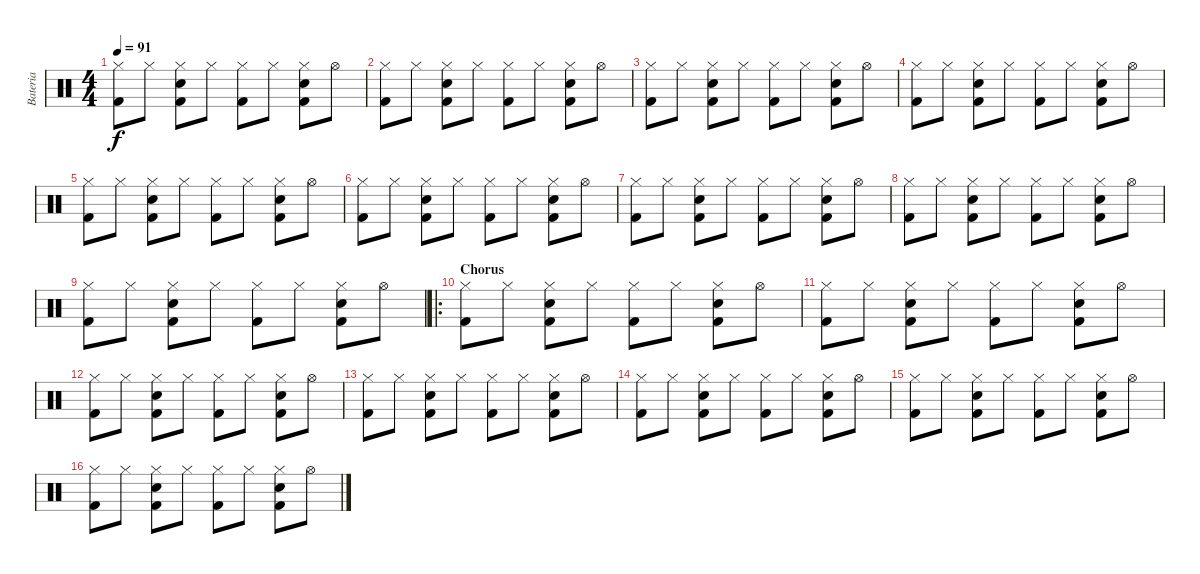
\track ("Bateria" "Bateria") {instrument percussion}
\staff {score}
\articulation defaults
\ts (4 4)
\tempo 91
\clef neutral
\ks c
("Hi-Hat (closed)" "Kick (hit) 2").8{dy f} "Hi-Hat (closed)".8 ("Hi-Hat (closed)" "Electric Snare (hit)" "Kick (hit) 2").8 "Hi-Hat (closed)".8 ("Hi-Hat (closed)" "Kick (hit) 2").8 "Hi-Hat (closed)".8 ("Hi-Hat (closed)" "Electric Snare (hit)" "Kick (hit) 2").8 "Hi-Hat (open)".8 |
("Hi-Hat (closed)" "Kick (hit) 2").8 "Hi-Hat (closed)".8 ("Hi-Hat (closed)" "Electric Snare (hit)" "Kick (hit) 2").8 "Hi-Hat (closed)".8 ("Hi-Hat (closed)" "Kick (hit) 2").8 "Hi-Hat (closed)".8 ("Hi-Hat (closed)" "Electric Snare (hit)" "Kick (hit) 2").8 "Hi-Hat (open)".8 |
("Hi-Hat (closed)" "Kick (hit) 2").8 "Hi-Hat (closed)".8 ("Hi-Hat (closed)" "Electric Snare (hit)" "Kick (hit) 2").8 "Hi-Hat (closed)".8 ("Hi-Hat (closed)" "Kick (hit) 2").8 "Hi-Hat (closed)".8 ("Hi-Hat (closed)" "Electric Snare (hit)" "Kick (hit) 2").8 "Hi-Hat (open)".8 |
("Hi-Hat (closed)" "Kick (hit) 2").8 "Hi-Hat (closed)".8 ("Hi-Hat (closed)" "Electric Snare (hit)" "Kick (hit) 2").8 "Hi-Hat (closed)".8 ("Hi-Hat (closed)" "Kick (hit) 2").8 "Hi-Hat (closed)".8 ("Hi-Hat (closed)" "Electric Snare (hit)" "Kick (hit) 2").8 "Hi-Hat (open)".8 |
("Hi-Hat (closed)" "Kick (hit) 2").8 "Hi-Hat (closed)".8 ("Hi-Hat (closed)" "Electric Snare (hit)" "Kick (hit) 2").8 "Hi-Hat (closed)".8 ("Hi-Hat (closed)" "Kick (hit) 2").8 "Hi-Hat (closed)".8 ("Hi-Hat (closed)" "Electric Snare (hit)" "Kick (hit) 2").8 "Hi-Hat (open)".8 |
("Hi-Hat (closed)" "Kick (hit) 2").8 "Hi-Hat (closed)".8 ("Hi-Hat (closed)" "Electric Snare (hit)" "Kick (hit) 2").8 "Hi-Hat (closed)".8 ("Hi-Hat (closed)" "Kick (hit) 2").8 "Hi-Hat (closed)".8 ("Hi-Hat (closed)" "Electric Snare (hit)" "Kick (hit) 2").8 "Hi-Hat (open)".8 |
("Hi-Hat (closed)" "Kick (hit) 2").8 "Hi-Hat (closed)".8 ("Hi-Hat (closed)" "Electric Snare (hit)" "Kick (hit) 2").8 "Hi-Hat (closed)".8 ("Hi-Hat (closed)" "Kick (hit) 2").8 "Hi-Hat (closed)".8 ("Hi-Hat (closed)" "Electric Snare (hit)" "Kick (hit) 2").8 "Hi-Hat (open)".8 |
("Hi-Hat (closed)" "Kick (hit) 2").8 "Hi-Hat (closed)".8 ("Hi-Hat (closed)" "Electric Snare (hit)" "Kick (hit) 2").8 "Hi-Hat (closed)".8 ("Hi-Hat (closed)" "Kick (hit) 2").8 "Hi-Hat (closed)".8 ("Hi-Hat (closed)" "Electric Snare (hit)" "Kick (hit) 2").8 "Hi-Hat (open)".8 |
("Hi-Hat (closed)" "Kick (hit) 2").8 "Hi-Hat (closed)".8 ("Hi-Hat (closed)" "Electric Snare (hit)" "Kick (hit) 2").8 "Hi-Hat (closed)".8 ("Hi-Hat (closed)" "Kick (hit) 2").8 "Hi-Hat (closed)".8 ("Hi-Hat (closed)" "Electric Snare (hit)" "Kick (hit) 2").8 "Hi-Hat (open)".8 |
\ro
\section ("" "Chorus")
("Hi-Hat (closed)" "Kick (hit) 2").8 "Hi-Hat (closed)".8 ("Hi-Hat (closed)" "Electric Snare (hit)" "Kick (hit) 2").8 "Hi-Hat (closed)".8 ("Hi-Hat (closed)" "Kick (hit) 2").8 "Hi-Hat (closed)".8 ("Hi-Hat (closed)" "Electric Snare (hit)" "Kick (hit) 2").8 "Hi-Hat (open)".8 |
("Hi-Hat (closed)" "Kick (hit) 2").8 "Hi-Hat (closed)".8 ("Hi-Hat (closed)" "Electric Snare (hit)" "Kick (hit) 2").8 "Hi-Hat (closed)".8 ("Hi-Hat (closed)" "Kick (hit) 2").8 "Hi-Hat (closed)".8 ("Hi-Hat (closed)" "Electric Snare (hit)" "Kick (hit) 2").8 "Hi-Hat (open)".8 |
("Hi-Hat (closed)" "Kick (hit) 2").8 "Hi-Hat (closed)".8 ("Hi-Hat (closed)" "Electric Snare (hit)" "Kick (hit) 2").8 "Hi-Hat (closed)".8 ("Hi-Hat (closed)" "Kick (hit) 2").8 "Hi-Hat (closed)".8 ("Hi-Hat (closed)" "Electric Snare (hit)" "Kick (hit) 2").8 "Hi-Hat (open)".8 |
("Hi-Hat (closed)" "Kick (hit) 2").8 "Hi-Hat (closed)".8 ("Hi-Hat (closed)" "Electric Snare (hit)" "Kick (hit) 2").8 "Hi-Hat (closed)".8 ("Hi-Hat (closed)" "Kick (hit) 2").8 "Hi-Hat (closed)".8 ("Hi-Hat (closed)" "Electric Snare (hit)" "Kick (hit) 2").8 "Hi-Hat (open)".8 |
("Hi-Hat (closed)" "Kick (hit) 2").8 "Hi-Hat (closed)".8 ("Hi-Hat (closed)" "Electric Snare (hit)" "Kick (hit) 2").8 "Hi-Hat (closed)".8 ("Hi-Hat (closed)" "Kick (hit) 2").8 "Hi-Hat (closed)".8 ("Hi-Hat (closed)" "Electric Snare (hit)" "Kick (hit) 2").8 "Hi-Hat (open)".8 |
("Hi-Hat (closed)" "Kick (hit) 2").8 "Hi-Hat (closed)".8 ("Hi-Hat (closed)" "Electric Snare (hit)" "Kick (hit) 2").8 "Hi-Hat (closed)".8 ("Hi-Hat (closed)" "Kick (hit) 2").8 "Hi-Hat (closed)".8 ("Hi-Hat (closed)" "Electric Snare (hit)" "Kick (hit) 2").8 "Hi-Hat (open)".8 |
("Hi-Hat (closed)" "Kick (hit) 2").8 "Hi-Hat (closed)".8 ("Hi-Hat (closed)" "Electric Snare (hit)" "Kick (hit) 2").8 "Hi-Hat (closed)".8 ("Hi-Hat (closed)" "Kick (hit) 2").8 "Hi-Hat (closed)".8 ("Hi-Hat (closed)" "Electric Snare (hit)" "Kick (hit) 2").8 "Hi-Hat (open)".8
